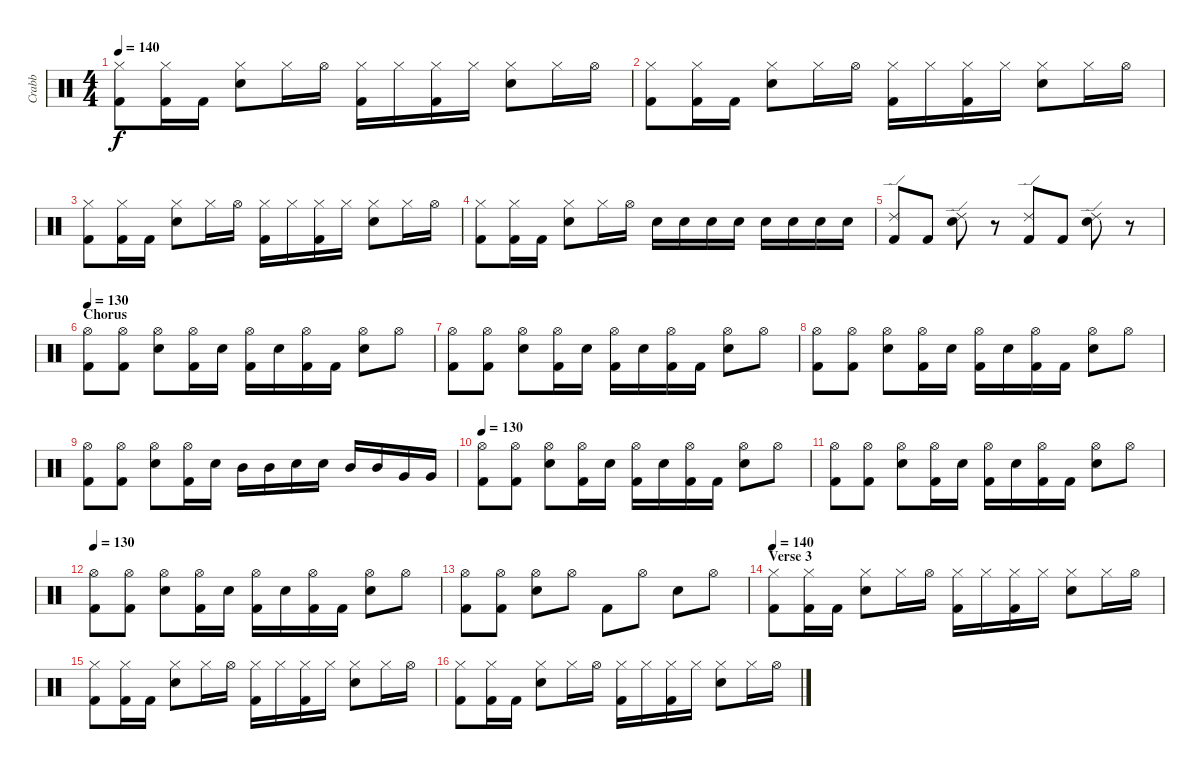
\track ("Crabb" "Crabb") {instrument percussion}
\staff {score}
\articulation defaults
\ts (4 4)
\tempo 140
\clef neutral
\ks c
("Hi-Hat (closed)" "Kick (hit) 2").8{dy f} ("Hi-Hat (closed)" "Kick (hit) 2").16 "Kick (hit) 2".16 ("Hi-Hat (closed)" "Electric Snare (hit)").8 "Hi-Hat (closed)".16 "Hi-Hat (open)".16 ("Hi-Hat (closed)" "Kick (hit) 2").16 "Hi-Hat (closed)".16 ("Hi-Hat (closed)" "Kick (hit) 2").16 "Hi-Hat (closed)".16 ("Hi-Hat (closed)" "Electric Snare (hit)").8 "Hi-Hat (closed)".16 "Hi-Hat (open)".16 |
("Hi-Hat (closed)" "Kick (hit) 2").8 ("Hi-Hat (closed)" "Kick (hit) 2").16 "Kick (hit) 2".16 ("Hi-Hat (closed)" "Electric Snare (hit)").8 "Hi-Hat (closed)".16 "Hi-Hat (open)".16 ("Hi-Hat (closed)" "Kick (hit) 2").16 "Hi-Hat (closed)".16 ("Hi-Hat (closed)" "Kick (hit) 2").16 "Hi-Hat (closed)".16 ("Hi-Hat (closed)" "Electric Snare (hit)").8 "Hi-Hat (closed)".16 "Hi-Hat (open)".16 |
("Hi-Hat (closed)" "Kick (hit) 2").8 ("Hi-Hat (closed)" "Kick (hit) 2").16 "Kick (hit) 2".16 ("Hi-Hat (closed)" "Electric Snare (hit)").8 "Hi-Hat (closed)".16 "Hi-Hat (open)".16 ("Hi-Hat (closed)" "Kick (hit) 2").16 "Hi-Hat (closed)".16 ("Hi-Hat (closed)" "Kick (hit) 2").16 "Hi-Hat (closed)".16 ("Hi-Hat (closed)" "Electric Snare (hit)").8 "Hi-Hat (closed)".16 "Hi-Hat (open)".16 |
("Hi-Hat (closed)" "Kick (hit) 2").8 ("Hi-Hat (closed)" "Kick (hit) 2").16 "Kick (hit) 2".16 ("Hi-Hat (closed)" "Electric Snare (hit)").8 "Hi-Hat (closed)".16 "Hi-Hat (open)".16 "Electric Snare (hit)".16 "Electric Snare (hit)".16 "Electric Snare (hit)".16 "Electric Snare (hit)".16 "Electric Snare (hit)".16 "Electric Snare (hit)".16 "Electric Snare (hit)".16 "Electric Snare (hit)".16 |
("Ride (edge) 2" "Kick (hit) 2").8 "Kick (hit) 2".8 ("Ride (edge) 2" "Electric Snare (hit)").8 r.8 ("Ride (edge) 2" "Kick (hit) 2").8 "Kick (hit) 2".8 ("Ride (edge) 2" "Electric Snare (hit)").8 r.8 |
\section ("" "Chorus")
\tempo 160
\tempo 130
("Hi-Hat (open)" "Kick (hit) 2").8 ("Hi-Hat (open)" "Kick (hit) 2").8 ("Hi-Hat (open)" "Electric Snare (hit)").8 ("Hi-Hat (open)" "Kick (hit) 2").16 "Electric Snare (hit)".16 ("Hi-Hat (open)" "Kick (hit) 2").16 "Electric Snare (hit)".16 ("Hi-Hat (open)" "Kick (hit) 2").16 "Kick (hit) 2".16 ("Hi-Hat (open)" "Electric Snare (hit)").8 "Hi-Hat (open)".8 |
("Hi-Hat (open)" "Kick (hit) 2").8 ("Hi-Hat (open)" "Kick (hit) 2").8 ("Hi-Hat (open)" "Electric Snare (hit)").8 ("Hi-Hat (open)" "Kick (hit) 2").16 "Electric Snare (hit)".16 ("Hi-Hat (open)" "Kick (hit) 2").16 "Electric Snare (hit)".16 ("Hi-Hat (open)" "Kick (hit) 2").16 "Kick (hit) 2".16 ("Hi-Hat (open)" "Electric Snare (hit)").8 "Hi-Hat (open)".8 |
("Hi-Hat (open)" "Kick (hit) 2").8 ("Hi-Hat (open)" "Kick (hit) 2").8 ("Hi-Hat (open)" "Electric Snare (hit)").8 ("Hi-Hat (open)" "Kick (hit) 2").16 "Electric Snare (hit)".16 ("Hi-Hat (open)" "Kick (hit) 2").16 "Electric Snare (hit)".16 ("Hi-Hat (open)" "Kick (hit) 2").16 "Kick (hit) 2".16 ("Hi-Hat (open)" "Electric Snare (hit)").8 "Hi-Hat (open)".8 |
("Hi-Hat (open)" "Kick (hit) 2").8 ("Hi-Hat (open)" "Kick (hit) 2").8 ("Hi-Hat (open)" "Electric Snare (hit)").8 ("Hi-Hat (open)" "Kick (hit) 2").16 "Electric Snare (hit)".16 "Mid Tom (hit)".16 "Mid Tom (hit)".16 "Electric Snare (hit)".16 "Electric Snare (hit)".16 "Mid Tom (hit)".16 "Mid Tom (hit)".16 "Very Low Tom (hit)".16 "Very Low Tom (hit)".16 |
\tempo 130
("Hi-Hat (open)" "Kick (hit) 2").8 ("Hi-Hat (open)" "Kick (hit) 2").8 ("Hi-Hat (open)" "Electric Snare (hit)").8 ("Hi-Hat (open)" "Kick (hit) 2").16 "Electric Snare (hit)".16 ("Hi-Hat (open)" "Kick (hit) 2").16 "Electric Snare (hit)".16 ("Hi-Hat (open)" "Kick (hit) 2").16 "Kick (hit) 2".16 ("Hi-Hat (open)" "Electric Snare (hit)").8 "Hi-Hat (open)".8 |
("Hi-Hat (open)" "Kick (hit) 2").8 ("Hi-Hat (open)" "Kick (hit) 2").8 ("Hi-Hat (open)" "Electric Snare (hit)").8 ("Hi-Hat (open)" "Kick (hit) 2").16 "Electric Snare (hit)".16 ("Hi-Hat (open)" "Kick (hit) 2").16 "Electric Snare (hit)".16 ("Hi-Hat (open)" "Kick (hit) 2").16 "Kick (hit) 2".16 ("Hi-Hat (open)" "Electric Snare (hit)").8 "Hi-Hat (open)".8 |
\tempo 150
\tempo 130
("Hi-Hat (open)" "Kick (hit) 2").8 ("Hi-Hat (open)" "Kick (hit) 2").8 ("Hi-Hat (open)" "Electric Snare (hit)").8 ("Hi-Hat (open)" "Kick (hit) 2").16 "Electric Snare (hit)".16 ("Hi-Hat (open)" "Kick (hit) 2").16 "Electric Snare (hit)".16 ("Hi-Hat (open)" "Kick (hit) 2").16 "Kick (hit) 2".16 ("Hi-Hat (open)" "Electric Snare (hit)").8 "Hi-Hat (open)".8 |
("Hi-Hat (open)" "Kick (hit) 2").8 ("Hi-Hat (open)" "Kick (hit) 2").8 ("Hi-Hat (open)" "Electric Snare (hit)").8 "Hi-Hat (open)".8 "Kick (hit) 2".8 "Hi-Hat (open)".8 "Electric Snare (hit)".8 "Hi-Hat (open)".8 |
\section ("" "Verse 3")
\tempo 130
\tempo 140
("Hi-Hat (closed)" "Kick (hit) 2").8 ("Hi-Hat (closed)" "Kick (hit) 2").16 "Kick (hit) 2".16 ("Hi-Hat (closed)" "Electric Snare (hit)").8 "Hi-Hat (closed)".16 "Hi-Hat (open)".16 ("Hi-Hat (closed)" "Kick (hit) 2").16 "Hi-Hat (closed)".16 ("Hi-Hat (closed)" "Kick (hit) 2").16 "Hi-Hat (closed)".16 ("Hi-Hat (closed)" "Electric Snare (hit)").8 "Hi-Hat (closed)".16 "Hi-Hat (open)".16 |
("Hi-Hat (closed)" "Kick (hit) 2").8 ("Hi-Hat (closed)" "Kick (hit) 2").16 "Kick (hit) 2".16 ("Hi-Hat (closed)" "Electric Snare (hit)").8 "Hi-Hat (closed)".16 "Hi-Hat (open)".16 ("Hi-Hat (closed)" "Kick (hit) 2").16 "Hi-Hat (closed)".16 ("Hi-Hat (closed)" "Kick (hit) 2").16 "Hi-Hat (closed)".16 ("Hi-Hat (closed)" "Electric Snare (hit)").8 "Hi-Hat (closed)".16 "Hi-Hat (open)".16 |
("Hi-Hat (closed)" "Kick (hit) 2").8 ("Hi-Hat (closed)" "Kick (hit) 2").16 "Kick (hit) 2".16 ("Hi-Hat (closed)" "Electric Snare (hit)").8 "Hi-Hat (closed)".16 "Hi-Hat (open)".16 ("Hi-Hat (closed)" "Kick (hit) 2").16 "Hi-Hat (closed)".16 ("Hi-Hat (closed)" "Kick (hit) 2").16 "Hi-Hat (closed)".16 ("Hi-Hat (closed)" "Electric Snare (hit)").8 "Hi-Hat (closed)".16 "Hi-Hat (open)".16
